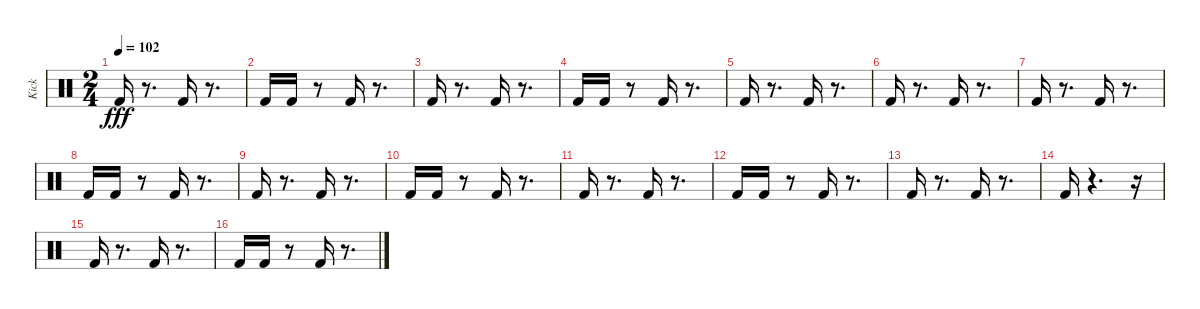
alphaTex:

\track ("Kick" "Kick") {instrument percussion}
\staff {score}
\articulation defaults
\ts (2 4)
\tempo 102
\clef neutral
\ks c "Kick (hit) 2".16{dy fff}
r.8{d} "Kick (hit) 2".16 r.8{d} |
"Kick (hit) 2".16 "Kick (hit) 2".16 r.8 "Kick (hit) 2".16 r.8{d} |
"Kick (hit) 2".16 r.8{d} "Kick (hit) 2".16 r.8{d} |
"Kick (hit) 2".16 "Kick (hit) 2".16 r.8 "Kick (hit) 2".16 r.8{d} |
"Kick (hit) 2".16 r.8{d} "Kick (hit) 2".16 r.8{d} |
"Kick (hit) 2".16 r.8{d} "Kick (hit) 2".16 r.8{d} |
"Kick (hit) 2".16 r.8{d} "Kick (hit) 2".16 r.8{d} |
"Kick (hit) 2".16 "Kick (hit) 2".16 r.8 "Kick (hit) 2".16 r.8{d} |
"Kick (hit) 2".16 r.8{d} "Kick (hit) 2".16 r.8{d} |
"Kick (hit) 2".16 "Kick (hit) 2".16 r.8 "Kick (hit) 2".16 r.8{d} |
"Kick (hit) 2".16 r.8{d} "Kick (hit) 2".16 r.8{d} |
"Kick (hit) 2".16 "Kick (hit) 2".16 r.8 "Kick (hit) 2".16 r.8{d} |
"Kick (hit) 2".16 r.8{d} "Kick (hit) 2".16 r.8{d} |
"Kick (hit) 2".16 r.4{d} r.16 |
"Kick (hit) 2".16 r.8{d} "Kick (hit) 2".16 r.8{d} |
"Kick (hit) 2".16 "Kick (hit) 2".16 r.8 "Kick (hit) 2".16 r.8{d}
